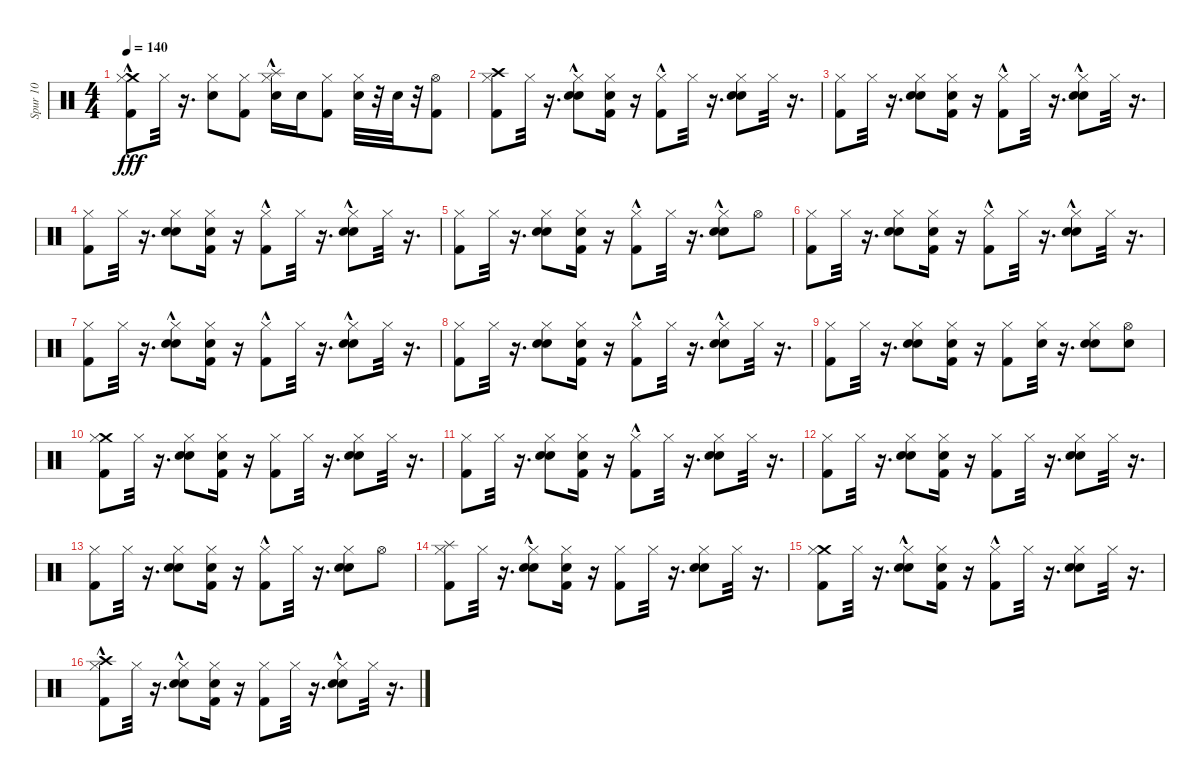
\track ("Spur 10" "Spur 10") {instrument percussion}
\staff {score}
\articulation defaults
\ts (4 4)
\tempo 140
\clef neutral
\ks c
("Kick (hit) 2" "Crash medium (hit)"{hac} "Hi-Hat (closed)").8{dy fff} "Hi-Hat (closed)".32 r.16{d} ("Snare (hit) 2" "Hi-Hat (closed)").8 ("Kick (hit) 2" "Hi-Hat (closed)").8 ("Snare (hit) 2" "Splash (hit)"{hac} "Hi-Hat (closed)").16 "Snare (hit) 2".16 ("Kick (hit) 2" "Hi-Hat (closed)").8 ("Snare (hit) 2" "Hi-Hat (closed)").32 r.32 "Snare (hit) 2".32 r.32 ("Kick (hit) 2" "Hi-Hat (open)").8 |
("Kick (hit) 2" "Crash high (hit)" "Hi-Hat (closed)").8 "Hi-Hat (closed)".32 r.16{d} ("Snare (hit) 2"{hac} "Hand Clap (hit)" "Hi-Hat (closed)").8 ("Kick (hit) 2" "Hand Clap (hit)" "Hi-Hat (closed)").16 r.16 ("Kick (hit) 2"{hac} "Hi-Hat (closed)").8 "Hi-Hat (closed)".32 r.16{d} ("Hand Clap (hit)" "Snare (hit) 2" "Hi-Hat (closed)").8 "Hi-Hat (closed)".32 r.16{d} |
("Kick (hit) 2" "Hi-Hat (closed)").8 "Hi-Hat (closed)".32 r.16{d} ("Hand Clap (hit)" "Snare (hit) 2" "Hi-Hat (closed)").8 ("Hand Clap (hit)" "Kick (hit) 2" "Hi-Hat (closed)").16 r.16 ("Kick (hit) 2"{hac} "Hi-Hat (closed)").8 "Hi-Hat (closed)".32 r.16{d} ("Snare (hit) 2" "Hand Clap (hit)"{hac} "Hi-Hat (closed)").8 "Hi-Hat (closed)".32 r.16{d} |
("Kick (hit) 2" "Hi-Hat (closed)").8 "Hi-Hat (closed)".32 r.16{d} ("Snare (hit) 2" "Hand Clap (hit)" "Hi-Hat (closed)").8 ("Hand Clap (hit)" "Kick (hit) 2" "Hi-Hat (closed)").16 r.16 ("Kick (hit) 2"{hac} "Hi-Hat (closed)").8 "Hi-Hat (closed)".32 r.16{d} ("Snare (hit) 2" "Hand Clap (hit)"{hac} "Hi-Hat (closed)").8 "Hi-Hat (closed)".32 r.16{d} |
("Kick (hit) 2" "Hi-Hat (closed)").8 "Hi-Hat (closed)".32 r.16{d} ("Hand Clap (hit)" "Snare (hit) 2" "Hi-Hat (closed)").8 ("Hand Clap (hit)" "Kick (hit) 2" "Hi-Hat (closed)").16 r.16 ("Kick (hit) 2"{hac} "Hi-Hat (closed)").8 "Hi-Hat (closed)".32 r.16{d} ("Snare (hit) 2" "Hand Clap (hit)"{hac} "Hi-Hat (closed)").8 "Hi-Hat (open)".8 |
("Kick (hit) 2" "Hi-Hat (closed)").8 "Hi-Hat (closed)".32 r.16{d} ("Snare (hit) 2" "Hand Clap (hit)" "Hi-Hat (closed)").8 ("Kick (hit) 2" "Hand Clap (hit)" "Hi-Hat (closed)").16 r.16 ("Kick (hit) 2"{hac} "Hi-Hat (closed)").8 "Hi-Hat (closed)".32 r.16{d} ("Snare (hit) 2" "Hand Clap (hit)"{hac} "Hi-Hat (closed)").8 "Hi-Hat (closed)".32 r.16{d} |
("Kick (hit) 2" "Hi-Hat (closed)").8 "Hi-Hat (closed)".32 r.16{d} ("Hand Clap (hit)" "Snare (hit) 2"{hac} "Hi-Hat (closed)").8 ("Hand Clap (hit)" "Kick (hit) 2" "Hi-Hat (closed)").16 r.16 ("Kick (hit) 2"{hac} "Hi-Hat (closed)").8 "Hi-Hat (closed)".32 r.16{d} ("Snare (hit) 2" "Hand Clap (hit)"{hac} "Hi-Hat (closed)").8 "Hi-Hat (closed)".32 r.16{d} |
("Kick (hit) 2" "Hi-Hat (closed)").8 "Hi-Hat (closed)".32 r.16{d} ("Snare (hit) 2" "Hand Clap (hit)" "Hi-Hat (closed)").8 ("Kick (hit) 2" "Hand Clap (hit)" "Hi-Hat (closed)").16 r.16 ("Kick (hit) 2"{hac} "Hi-Hat (closed)").8 "Hi-Hat (closed)".32 r.16{d} ("Snare (hit) 2" "Hand Clap (hit)"{hac} "Hi-Hat (closed)").8 "Hi-Hat (closed)".32 r.16{d} |
("Kick (hit) 2" "Hi-Hat (closed)").8 "Hi-Hat (closed)".32 r.16{d} ("Hand Clap (hit)" "Snare (hit) 2" "Hi-Hat (closed)").8 ("Hand Clap (hit)" "Kick (hit) 2" "Hi-Hat (closed)").16 r.16 ("Kick (hit) 2" "Hi-Hat (closed)").8 ("Snare (hit) 2" "Hi-Hat (closed)").32 r.16{d} ("Hand Clap (hit)" "Snare (hit) 2" "Hi-Hat (closed)").8 ("Snare (hit) 2" "Hi-Hat (open)").8 |
("Kick (hit) 2" "Crash medium (hit)" "Hi-Hat (closed)").8 "Hi-Hat (closed)".32 r.16{d} ("Snare (hit) 2" "Hand Clap (hit)" "Hi-Hat (closed)").8 ("Hand Clap (hit)" "Kick (hit) 2" "Hi-Hat (closed)").16 r.16 ("Kick (hit) 2" "Hi-Hat (closed)").8 "Hi-Hat (closed)".32 r.16{d} ("Hand Clap (hit)" "Snare (hit) 2" "Hi-Hat (closed)").8 "Hi-Hat (closed)".32 r.16{d} |
("Kick (hit) 2" "Hi-Hat (closed)").8 "Hi-Hat (closed)".32 r.16{d} ("Hand Clap (hit)" "Snare (hit) 2" "Hi-Hat (closed)").8 ("Hand Clap (hit)" "Kick (hit) 2" "Hi-Hat (closed)").16 r.16 ("Kick (hit) 2"{hac} "Hi-Hat (closed)").8 "Hi-Hat (closed)".32 r.16{d} ("Snare (hit) 2" "Hand Clap (hit)" "Hi-Hat (closed)").8 "Hi-Hat (closed)".32 r.16{d} |
("Kick (hit) 2" "Hi-Hat (closed)").8 "Hi-Hat (closed)".32 r.16{d} ("Hand Clap (hit)" "Snare (hit) 2" "Hi-Hat (closed)").8 ("Hand Clap (hit)" "Kick (hit) 2" "Hi-Hat (closed)").16 r.16 ("Kick (hit) 2" "Hi-Hat (closed)").8 "Hi-Hat (closed)".32 r.16{d} ("Hand Clap (hit)" "Snare (hit) 2" "Hi-Hat (closed)").8 "Hi-Hat (closed)".32 r.16{d} |
("Kick (hit) 2" "Hi-Hat (closed)").8 "Hi-Hat (closed)".32 r.16{d} ("Hand Clap (hit)" "Snare (hit) 2" "Hi-Hat (closed)").8 ("Hand Clap (hit)" "Kick (hit) 2" "Hi-Hat (closed)").16 r.16 ("Kick (hit) 2"{hac} "Hi-Hat (closed)").8 "Hi-Hat (closed)".32 r.16{d} ("Snare (hit) 2" "Hand Clap (hit)" "Hi-Hat (closed)").8 "Hi-Hat (open)".8 |
("Splash (hit)" "Kick (hit) 2" "Hi-Hat (closed)").8 "Hi-Hat (closed)".32 r.16{d} ("Hand Clap (hit)" "Snare (hit) 2"{hac} "Hi-Hat (closed)").8 ("Hand Clap (hit)" "Kick (hit) 2" "Hi-Hat (closed)").16 r.16 ("Kick (hit) 2" "Hi-Hat (closed)").8 "Hi-Hat (closed)".32 r.16{d} ("Hand Clap (hit)" "Snare (hit) 2" "Hi-Hat (closed)").8 "Hi-Hat (closed)".32 r.16{d} |
("Crash medium (hit)" "Kick (hit) 2" "Hi-Hat (closed)").8 "Hi-Hat (closed)".32 r.16{d} ("Hand Clap (hit)" "Snare (hit) 2"{hac} "Hi-Hat (closed)").8 ("Hand Clap (hit)" "Kick (hit) 2" "Hi-Hat (closed)").16 r.16 ("Kick (hit) 2"{hac} "Hi-Hat (closed)").8 "Hi-Hat (closed)".32 r.16{d} ("Snare (hit) 2" "Hand Clap (hit)" "Hi-Hat (closed)").8 "Hi-Hat (closed)".32 r.16{d} |
("Kick (hit) 2" "Crash high (hit)"{hac} "Hi-Hat (closed)").8 "Hi-Hat (closed)".32 r.16{d} ("Snare (hit) 2"{hac} "Hand Clap (hit)" "Hi-Hat (closed)").8 ("Hand Clap (hit)" "Kick (hit) 2" "Hi-Hat (closed)").16 r.16 ("Kick (hit) 2" "Hi-Hat (closed)").8 "Hi-Hat (closed)".32 r.16{d} ("Hand Clap (hit)"{hac} "Snare (hit) 2"{hac} "Hi-Hat (closed)").8 "Hi-Hat (closed)".32 r.16{d}
